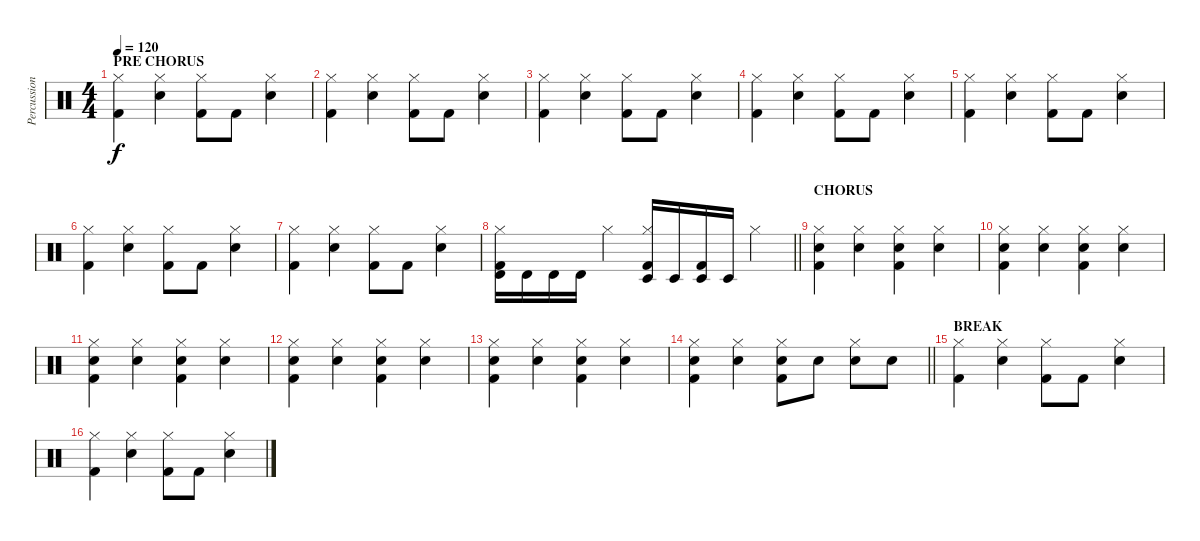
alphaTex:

\track ("Percussion" "Percussion") {instrument percussion}
\staff {score}
\articulation defaults
\ts (4 4)
\section ("" "PRE CHORUS")
\tempo 120
\clef neutral
\ks c
("Hi-Hat (closed)" "Kick (hit) 2").4{dy f} ("Hi-Hat (closed)" "Snare (hit) 2").4 ("Hi-Hat (closed)" "Kick (hit) 2").8 "Kick (hit) 2".8 ("Hi-Hat (closed)" "Snare (hit) 2").4 |
("Hi-Hat (closed)" "Kick (hit) 2").4 ("Hi-Hat (closed)" "Snare (hit) 2").4 ("Hi-Hat (closed)" "Kick (hit) 2").8 "Kick (hit) 2".8 ("Hi-Hat (closed)" "Snare (hit) 2").4 |
("Hi-Hat (closed)" "Kick (hit) 2").4 ("Hi-Hat (closed)" "Snare (hit) 2").4 ("Hi-Hat (closed)" "Kick (hit) 2").8 "Kick (hit) 2".8 ("Hi-Hat (closed)" "Snare (hit) 2").4 |
("Hi-Hat (closed)" "Kick (hit) 2").4 ("Hi-Hat (closed)" "Snare (hit) 2").4 ("Hi-Hat (closed)" "Kick (hit) 2").8 "Kick (hit) 2".8 ("Hi-Hat (closed)" "Snare (hit) 2").4 |
("Hi-Hat (closed)" "Kick (hit) 2").4 ("Hi-Hat (closed)" "Snare (hit) 2").4 ("Hi-Hat (closed)" "Kick (hit) 2").8 "Kick (hit) 2".8 ("Hi-Hat (closed)" "Snare (hit) 2").4 |
("Hi-Hat (closed)" "Kick (hit) 2").4 ("Hi-Hat (closed)" "Snare (hit) 2").4 ("Hi-Hat (closed)" "Kick (hit) 2").8 "Kick (hit) 2".8 ("Hi-Hat (closed)" "Snare (hit) 2").4 |
("Hi-Hat (closed)" "Kick (hit) 2").4 ("Hi-Hat (closed)" "Snare (hit) 2").4 ("Hi-Hat (closed)" "Kick (hit) 2").8 "Kick (hit) 2".8 ("Hi-Hat (closed)" "Snare (hit) 2").4 |
\barLineRight lightlight
("Hi-Hat (closed)" "Kick (hit) 2" "Timbale high (hit)").16 "Timbale high (hit)".16 "Timbale high (hit)".16 "Timbale high (hit)".16 "Hi-Hat (closed)".4 ("Hi-Hat (closed)" "Kick (hit) 2" "Timbale low (hit)").16 "Timbale low (hit)".16 ("Kick (hit) 2" "Timbale low (hit)").16 "Timbale low (hit)".16 "Hi-Hat (closed)".4 |
\section ("" "CHORUS")
("Hi-Hat (closed)" "Kick (hit) 2" "Snare (hit) 2").4 ("Hi-Hat (closed)" "Snare (hit) 2").4 ("Hi-Hat (closed)" "Kick (hit) 2" "Snare (hit) 2").4 ("Hi-Hat (closed)" "Snare (hit) 2").4 |
("Hi-Hat (closed)" "Kick (hit) 2" "Snare (hit) 2").4 ("Hi-Hat (closed)" "Snare (hit) 2").4 ("Hi-Hat (closed)" "Kick (hit) 2" "Snare (hit) 2").4 ("Hi-Hat (closed)" "Snare (hit) 2").4 |
("Hi-Hat (closed)" "Kick (hit) 2" "Snare (hit) 2").4 ("Hi-Hat (closed)" "Snare (hit) 2").4 ("Hi-Hat (closed)" "Kick (hit) 2" "Snare (hit) 2").4 ("Hi-Hat (closed)" "Snare (hit) 2").4 |
("Hi-Hat (closed)" "Kick (hit) 2" "Snare (hit) 2").4 ("Hi-Hat (closed)" "Snare (hit) 2").4 ("Hi-Hat (closed)" "Kick (hit) 2" "Snare (hit) 2").4 ("Hi-Hat (closed)" "Snare (hit) 2").4 |
("Hi-Hat (closed)" "Kick (hit) 2" "Snare (hit) 2").4 ("Hi-Hat (closed)" "Snare (hit) 2").4 ("Hi-Hat (closed)" "Kick (hit) 2" "Snare (hit) 2").4 ("Hi-Hat (closed)" "Snare (hit) 2").4 |
\barLineRight lightlight
("Hi-Hat (closed)" "Kick (hit) 2" "Snare (hit) 2").4 ("Hi-Hat (closed)" "Snare (hit) 2").4 ("Hi-Hat (closed)" "Kick (hit) 2" "Snare (hit) 2").8 "Snare (hit) 2".8 ("Hi-Hat (closed)" "Snare (hit) 2").8 "Snare (hit) 2".8 |
\section ("" "BREAK")
("Hi-Hat (closed)" "Kick (hit) 2").4 ("Hi-Hat (closed)" "Snare (hit) 2").4 ("Hi-Hat (closed)" "Kick (hit) 2").8 "Kick (hit) 2".8 ("Hi-Hat (closed)" "Snare (hit) 2").4 |
("Hi-Hat (closed)" "Kick (hit) 2").4 ("Hi-Hat (closed)" "Snare (hit) 2").4 ("Hi-Hat (closed)" "Kick (hit) 2").8 "Kick (hit) 2".8 ("Hi-Hat (closed)" "Snare (hit) 2").4
